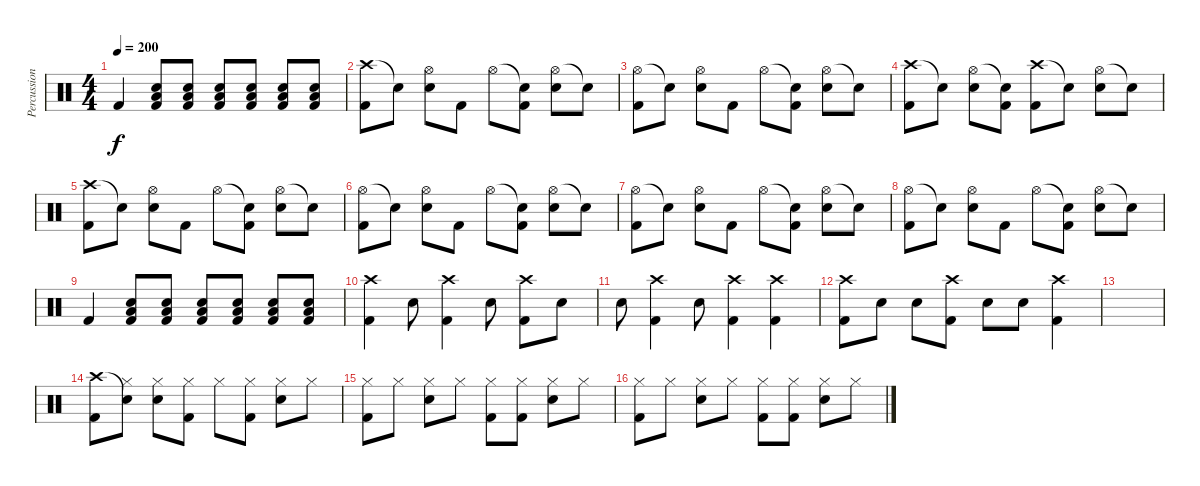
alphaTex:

\track ("Percussions" "Percussion") {instrument percussion}
\staff {score}
\articulation defaults
\ts (4 4)
\tempo 200
\clef neutral
\ks c "Kick (hit) 2".4{dy f}
("Electric Snare (hit)" "Low Tom (hit)" "Kick (hit) 2").8 ("Electric Snare (hit)" "Low Tom (hit)" "Kick (hit) 2").8 ("Electric Snare (hit)" "Low Tom (hit)" "Kick (hit) 2").8 ("Electric Snare (hit)" "Low Tom (hit)" "Kick (hit) 2").8 ("Electric Snare (hit)" "Low Tom (hit)" "Kick (hit) 2").8 ("Electric Snare (hit)" "Low Tom (hit)" "Kick (hit) 2").8 |
("Crash high (hit)" "Kick (hit) 2").8 "Snare (hit)"{t}.8 ("Hi-Hat (open)" "Electric Snare (hit)").8 "Kick (hit) 2".8 "Hi-Hat (open)".8 ("Snare (hit)"{t} "Kick (hit) 2").8 ("Hi-Hat (open)" "Electric Snare (hit)").8 "Snare (hit)"{t}.8 |
("Hi-Hat (open)" "Kick (hit) 2").8 "Snare (hit)"{t}.8 ("Hi-Hat (open)" "Electric Snare (hit)").8 "Kick (hit) 2".8 "Hi-Hat (open)".8 ("Snare (hit)"{t} "Kick (hit) 2").8 ("Hi-Hat (open)" "Electric Snare (hit)").8 "Snare (hit)"{t}.8 |
("Crash high (hit)" "Kick (hit) 2").8 "Snare (hit)"{t}.8 ("Hi-Hat (open)" "Electric Snare (hit)").8 ("Snare (hit)"{t} "Kick (hit) 2").8 ("Crash high (hit)" "Kick (hit) 2").8 "Snare (hit)"{t}.8 ("Hi-Hat (open)" "Electric Snare (hit)").8 "Snare (hit)"{t}.8 |
("Crash high (hit)" "Kick (hit) 2").8 "Snare (hit)"{t}.8 ("Hi-Hat (open)" "Electric Snare (hit)").8 "Kick (hit) 2".8 "Hi-Hat (open)".8 ("Snare (hit)"{t} "Kick (hit) 2").8 ("Hi-Hat (open)" "Electric Snare (hit)").8 "Snare (hit)"{t}.8 |
("Hi-Hat (open)" "Kick (hit) 2").8 "Snare (hit)"{t}.8 ("Hi-Hat (open)" "Electric Snare (hit)").8 "Kick (hit) 2".8 "Hi-Hat (open)".8 ("Snare (hit)"{t} "Kick (hit) 2").8 ("Hi-Hat (open)" "Electric Snare (hit)").8 "Snare (hit)"{t}.8 |
("Hi-Hat (open)" "Kick (hit) 2").8 "Snare (hit)"{t}.8 ("Hi-Hat (open)" "Electric Snare (hit)").8 "Kick (hit) 2".8 "Hi-Hat (open)".8 ("Snare (hit)"{t} "Kick (hit) 2").8 ("Hi-Hat (open)" "Electric Snare (hit)").8 "Snare (hit)"{t}.8 |
("Hi-Hat (open)" "Kick (hit) 2").8 "Snare (hit)"{t}.8 ("Hi-Hat (open)" "Electric Snare (hit)").8 "Kick (hit) 2".8 "Hi-Hat (open)".8 ("Snare (hit)"{t} "Kick (hit) 2").8 ("Hi-Hat (open)" "Electric Snare (hit)").8 "Snare (hit)"{t}.8 |
"Kick (hit) 2".4 ("Electric Snare (hit)" "Low Tom (hit)" "Kick (hit) 2").8 ("Electric Snare (hit)" "Low Tom (hit)" "Kick (hit) 2").8 ("Electric Snare (hit)" "Low Tom (hit)" "Kick (hit) 2").8 ("Electric Snare (hit)" "Low Tom (hit)" "Kick (hit) 2").8 ("Electric Snare (hit)" "Low Tom (hit)" "Kick (hit) 2").8 ("Electric Snare (hit)" "Low Tom (hit)" "Kick (hit) 2").8 |
("Crash high (hit)" "Kick (hit) 2").4 "Electric Snare (hit)".8 ("Crash high (hit)" "Kick (hit) 2").4 "Electric Snare (hit)".8 ("Crash high (hit)" "Kick (hit) 2").8 "Electric Snare (hit)".8 |
"Electric Snare (hit)".8 ("Crash high (hit)" "Kick (hit) 2").4 "Electric Snare (hit)".8 ("Crash high (hit)" "Kick (hit) 2").4 ("Crash high (hit)" "Kick (hit) 2").4 |
("Crash high (hit)" "Kick (hit) 2").8 "Electric Snare (hit)".8 "Electric Snare (hit)".8 ("Crash high (hit)" "Kick (hit) 2").8 "Electric Snare (hit)".8 "Electric Snare (hit)".8 ("Crash high (hit)" "Kick (hit) 2").4 |
|
("Crash high (hit)" "Kick (hit) 2").8 ("Snare (hit)"{t} "Hi-Hat (closed)").8 ("Hi-Hat (closed)" "Electric Snare (hit)").8 ("Hi-Hat (closed)" "Kick (hit) 2").8 "Hi-Hat (closed)".8 ("Hi-Hat (closed)" "Kick (hit) 2").8 ("Hi-Hat (closed)" "Electric Snare (hit)").8 "Hi-Hat (closed)".8 |
("Hi-Hat (closed)" "Kick (hit) 2").8 "Hi-Hat (closed)".8 ("Hi-Hat (closed)" "Electric Snare (hit)").8 "Hi-Hat (closed)".8 ("Hi-Hat (closed)" "Kick (hit) 2").8 ("Hi-Hat (closed)" "Kick (hit) 2").8 ("Hi-Hat (closed)" "Electric Snare (hit)").8 "Hi-Hat (closed)".8 |
("Hi-Hat (closed)" "Kick (hit) 2").8 "Hi-Hat (closed)".8 ("Hi-Hat (closed)" "Electric Snare (hit)").8 "Hi-Hat (closed)".8 ("Hi-Hat (closed)" "Kick (hit) 2").8 ("Hi-Hat (closed)" "Kick (hit) 2").8 ("Hi-Hat (closed)" "Electric Snare (hit)").8 "Hi-Hat (closed)".8
